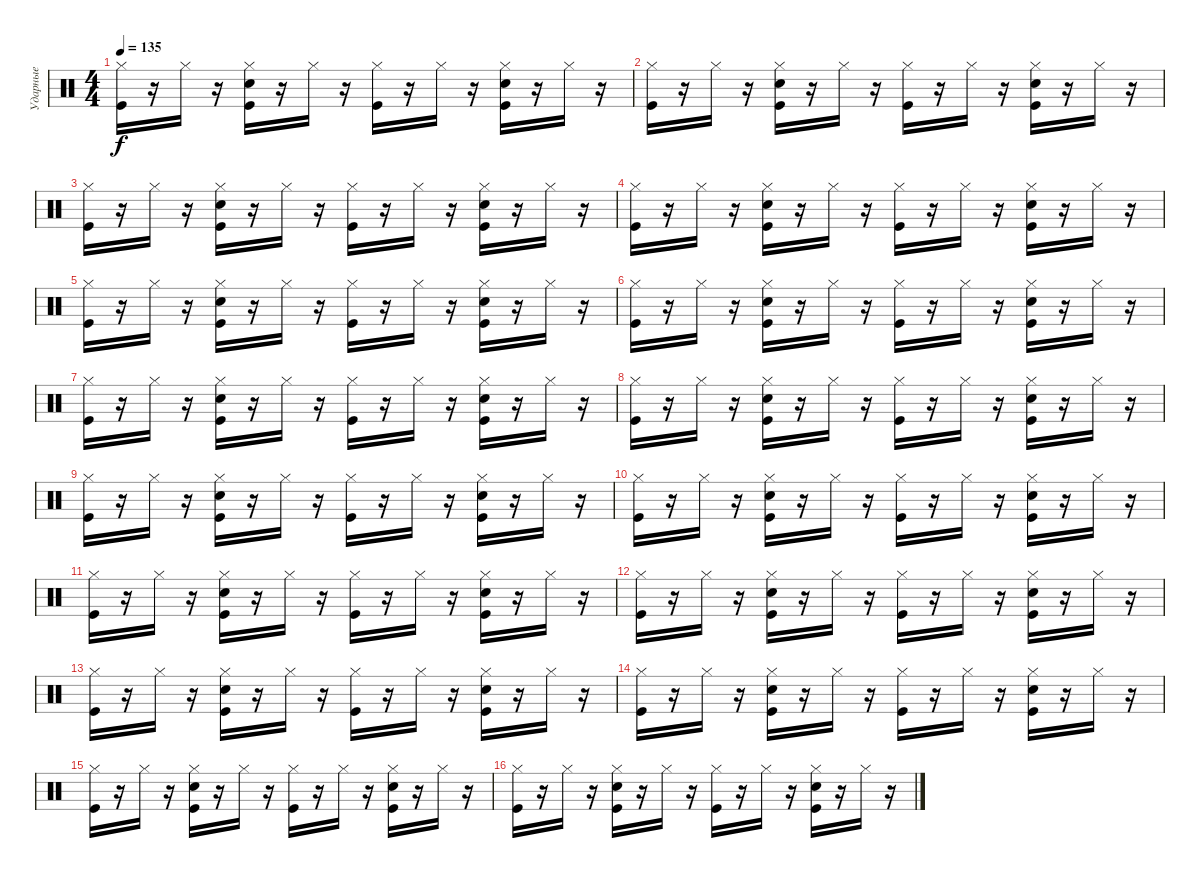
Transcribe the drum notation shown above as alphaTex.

\track ("Ударные" "Ударные") {instrument percussion}
\staff {score}
\articulation defaults
\ts (4 4)
\tempo 135
\clef neutral
\ks c
("Hi-Hat (closed)" "Kick (hit)").16{dy f} r.16 "Hi-Hat (closed)".16 r.16 ("Hi-Hat (closed)" "Kick (hit)" "Snare (hit) 2").16 r.16 "Hi-Hat (closed)".16 r.16 ("Hi-Hat (closed)" "Kick (hit)").16 r.16 "Hi-Hat (closed)".16 r.16 ("Hi-Hat (closed)" "Snare (hit) 2" "Kick (hit)").16 r.16 "Hi-Hat (closed)".16 r.16 |
("Hi-Hat (closed)" "Kick (hit)").16 r.16 "Hi-Hat (closed)".16 r.16 ("Hi-Hat (closed)" "Kick (hit)" "Snare (hit) 2").16 r.16 "Hi-Hat (closed)".16 r.16 ("Hi-Hat (closed)" "Kick (hit)").16 r.16 "Hi-Hat (closed)".16 r.16 ("Hi-Hat (closed)" "Snare (hit) 2" "Kick (hit)").16 r.16 "Hi-Hat (closed)".16 r.16 |
("Hi-Hat (closed)" "Kick (hit)").16 r.16 "Hi-Hat (closed)".16 r.16 ("Hi-Hat (closed)" "Kick (hit)" "Snare (hit) 2").16 r.16 "Hi-Hat (closed)".16 r.16 ("Hi-Hat (closed)" "Kick (hit)").16 r.16 "Hi-Hat (closed)".16 r.16 ("Hi-Hat (closed)" "Snare (hit) 2" "Kick (hit)").16 r.16 "Hi-Hat (closed)".16 r.16 |
("Hi-Hat (closed)" "Kick (hit)").16 r.16 "Hi-Hat (closed)".16 r.16 ("Hi-Hat (closed)" "Kick (hit)" "Snare (hit) 2").16 r.16 "Hi-Hat (closed)".16 r.16 ("Hi-Hat (closed)" "Kick (hit)").16 r.16 "Hi-Hat (closed)".16 r.16 ("Hi-Hat (closed)" "Snare (hit) 2" "Kick (hit)").16 r.16 "Hi-Hat (closed)".16 r.16 |
("Hi-Hat (closed)" "Kick (hit)").16 r.16 "Hi-Hat (closed)".16 r.16 ("Hi-Hat (closed)" "Kick (hit)" "Snare (hit) 2").16 r.16 "Hi-Hat (closed)".16 r.16 ("Hi-Hat (closed)" "Kick (hit)").16 r.16 "Hi-Hat (closed)".16 r.16 ("Hi-Hat (closed)" "Snare (hit) 2" "Kick (hit)").16 r.16 "Hi-Hat (closed)".16 r.16 |
("Hi-Hat (closed)" "Kick (hit)").16 r.16 "Hi-Hat (closed)".16 r.16 ("Hi-Hat (closed)" "Kick (hit)" "Snare (hit) 2").16 r.16 "Hi-Hat (closed)".16 r.16 ("Hi-Hat (closed)" "Kick (hit)").16 r.16 "Hi-Hat (closed)".16 r.16 ("Hi-Hat (closed)" "Snare (hit) 2" "Kick (hit)").16 r.16 "Hi-Hat (closed)".16 r.16 |
("Hi-Hat (closed)" "Kick (hit)").16 r.16 "Hi-Hat (closed)".16 r.16 ("Hi-Hat (closed)" "Kick (hit)" "Snare (hit) 2").16 r.16 "Hi-Hat (closed)".16 r.16 ("Hi-Hat (closed)" "Kick (hit)").16 r.16 "Hi-Hat (closed)".16 r.16 ("Hi-Hat (closed)" "Snare (hit) 2" "Kick (hit)").16 r.16 "Hi-Hat (closed)".16 r.16 |
("Hi-Hat (closed)" "Kick (hit)").16 r.16 "Hi-Hat (closed)".16 r.16 ("Hi-Hat (closed)" "Kick (hit)" "Snare (hit) 2").16 r.16 "Hi-Hat (closed)".16 r.16 ("Hi-Hat (closed)" "Kick (hit)").16 r.16 "Hi-Hat (closed)".16 r.16 ("Hi-Hat (closed)" "Snare (hit) 2" "Kick (hit)").16 r.16 "Hi-Hat (closed)".16 r.16 |
("Hi-Hat (closed)" "Kick (hit)").16 r.16 "Hi-Hat (closed)".16 r.16 ("Hi-Hat (closed)" "Kick (hit)" "Snare (hit) 2").16 r.16 "Hi-Hat (closed)".16 r.16 ("Hi-Hat (closed)" "Kick (hit)").16 r.16 "Hi-Hat (closed)".16 r.16 ("Hi-Hat (closed)" "Snare (hit) 2" "Kick (hit)").16 r.16 "Hi-Hat (closed)".16 r.16 |
("Hi-Hat (closed)" "Kick (hit)").16 r.16 "Hi-Hat (closed)".16 r.16 ("Hi-Hat (closed)" "Kick (hit)" "Snare (hit) 2").16 r.16 "Hi-Hat (closed)".16 r.16 ("Hi-Hat (closed)" "Kick (hit)").16 r.16 "Hi-Hat (closed)".16 r.16 ("Hi-Hat (closed)" "Snare (hit) 2" "Kick (hit)").16 r.16 "Hi-Hat (closed)".16 r.16 |
("Hi-Hat (closed)" "Kick (hit)").16 r.16 "Hi-Hat (closed)".16 r.16 ("Hi-Hat (closed)" "Kick (hit)" "Snare (hit) 2").16 r.16 "Hi-Hat (closed)".16 r.16 ("Hi-Hat (closed)" "Kick (hit)").16 r.16 "Hi-Hat (closed)".16 r.16 ("Hi-Hat (closed)" "Snare (hit) 2" "Kick (hit)").16 r.16 "Hi-Hat (closed)".16 r.16 |
("Hi-Hat (closed)" "Kick (hit)").16 r.16 "Hi-Hat (closed)".16 r.16 ("Hi-Hat (closed)" "Kick (hit)" "Snare (hit) 2").16 r.16 "Hi-Hat (closed)".16 r.16 ("Hi-Hat (closed)" "Kick (hit)").16 r.16 "Hi-Hat (closed)".16 r.16 ("Hi-Hat (closed)" "Snare (hit) 2" "Kick (hit)").16 r.16 "Hi-Hat (closed)".16 r.16 |
("Hi-Hat (closed)" "Kick (hit)").16 r.16 "Hi-Hat (closed)".16 r.16 ("Hi-Hat (closed)" "Kick (hit)" "Snare (hit) 2").16 r.16 "Hi-Hat (closed)".16 r.16 ("Hi-Hat (closed)" "Kick (hit)").16 r.16 "Hi-Hat (closed)".16 r.16 ("Hi-Hat (closed)" "Snare (hit) 2" "Kick (hit)").16 r.16 "Hi-Hat (closed)".16 r.16 |
("Hi-Hat (closed)" "Kick (hit)").16 r.16 "Hi-Hat (closed)".16 r.16 ("Hi-Hat (closed)" "Kick (hit)" "Snare (hit) 2").16 r.16 "Hi-Hat (closed)".16 r.16 ("Hi-Hat (closed)" "Kick (hit)").16 r.16 "Hi-Hat (closed)".16 r.16 ("Hi-Hat (closed)" "Snare (hit) 2" "Kick (hit)").16 r.16 "Hi-Hat (closed)".16 r.16 |
("Hi-Hat (closed)" "Kick (hit)").16 r.16 "Hi-Hat (closed)".16 r.16 ("Hi-Hat (closed)" "Kick (hit)" "Snare (hit) 2").16 r.16 "Hi-Hat (closed)".16 r.16 ("Hi-Hat (closed)" "Kick (hit)").16 r.16 "Hi-Hat (closed)".16 r.16 ("Hi-Hat (closed)" "Snare (hit) 2" "Kick (hit)").16 r.16 "Hi-Hat (closed)".16 r.16 |
("Hi-Hat (closed)" "Kick (hit)").16 r.16 "Hi-Hat (closed)".16 r.16 ("Hi-Hat (closed)" "Kick (hit)" "Snare (hit) 2").16 r.16 "Hi-Hat (closed)".16 r.16 ("Hi-Hat (closed)" "Kick (hit)").16 r.16 "Hi-Hat (closed)".16 r.16 ("Hi-Hat (closed)" "Snare (hit) 2" "Kick (hit)").16 r.16 "Hi-Hat (closed)".16 r.16
